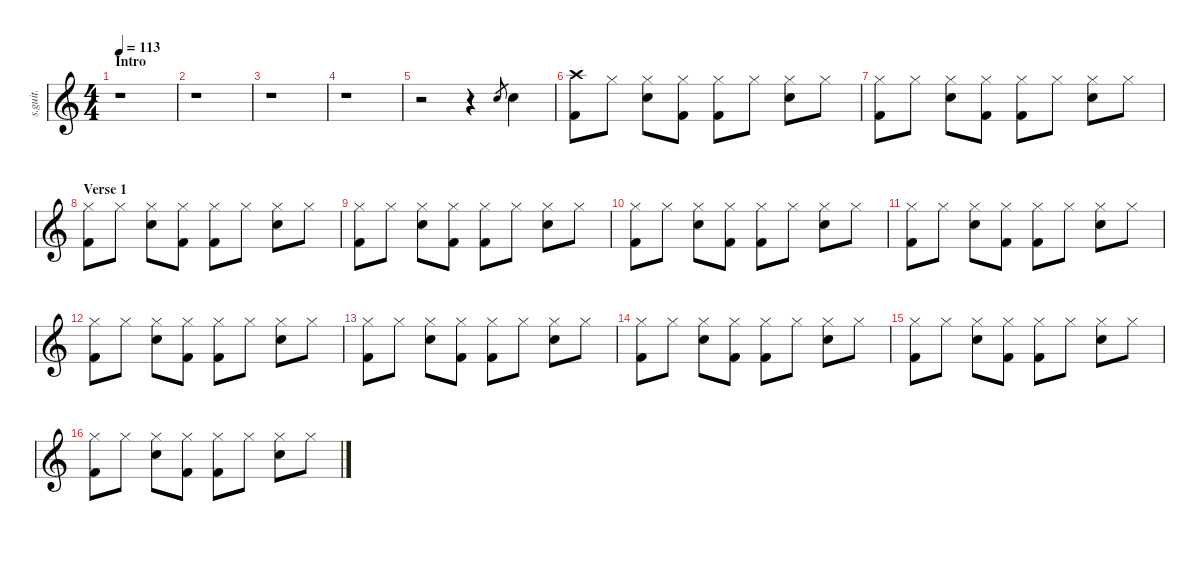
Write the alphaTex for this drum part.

\defaultSystemsLayout 4
\hideDynamics
\bracketExtendMode nobrackets
\track ("" "s.guit.") {instrument percussion}
\staff {score}
\articulation defaults
\ts (4 4)
\beaming (8 2 2 2 2)
\section ("" "Intro")
\tempo 113
\clef g2
\ks c
r.1{dy f} |
r.1 |
r.1 |
r.1 |
r.2 r.4 "Snare (hit) 2".8{lyrics (0 "") lyrics (1 "") lyrics (2 "") lyrics (3 "") lyrics (4 "") gr} "Snare (hit) 2".4{lyrics (0 "") lyrics (1 "") lyrics (2 "") lyrics (3 "") lyrics (4 "")} |
("Crash high (hit)" "Kick (hit) 2").8{lyrics (0 "") lyrics (1 "") lyrics (2 "") lyrics (3 "") lyrics (4 "")} "Hi-Hat (closed)".8{lyrics (0 "") lyrics (1 "") lyrics (2 "") lyrics (3 "") lyrics (4 "")} ("Hi-Hat (closed)" "Snare (hit) 2").8{lyrics (0 "") lyrics (1 "") lyrics (2 "") lyrics (3 "") lyrics (4 "")} ("Hi-Hat (closed)" "Kick (hit) 2").8{lyrics (0 "") lyrics (1 "") lyrics (2 "") lyrics (3 "") lyrics (4 "")} ("Hi-Hat (closed)" "Kick (hit) 2").8{lyrics (0 "") lyrics (1 "") lyrics (2 "") lyrics (3 "") lyrics (4 "")} "Hi-Hat (closed)".8{lyrics (0 "") lyrics (1 "") lyrics (2 "") lyrics (3 "") lyrics (4 "")} ("Hi-Hat (closed)" "Snare (hit) 2").8{lyrics (0 "") lyrics (1 "") lyrics (2 "") lyrics (3 "") lyrics (4 "")} "Hi-Hat (closed)".8{lyrics (0 "") lyrics (1 "") lyrics (2 "") lyrics (3 "") lyrics (4 "")} |
("Hi-Hat (closed)" "Kick (hit) 2").8{lyrics (0 "") lyrics (1 "") lyrics (2 "") lyrics (3 "") lyrics (4 "")} "Hi-Hat (closed)".8{lyrics (0 "") lyrics (1 "") lyrics (2 "") lyrics (3 "") lyrics (4 "")} ("Hi-Hat (closed)" "Snare (hit) 2").8{lyrics (0 "") lyrics (1 "") lyrics (2 "") lyrics (3 "") lyrics (4 "")} ("Hi-Hat (closed)" "Kick (hit) 2").8{lyrics (0 "") lyrics (1 "") lyrics (2 "") lyrics (3 "") lyrics (4 "")} ("Hi-Hat (closed)" "Kick (hit) 2").8{lyrics (0 "") lyrics (1 "") lyrics (2 "") lyrics (3 "") lyrics (4 "")} "Hi-Hat (closed)".8{lyrics (0 "") lyrics (1 "") lyrics (2 "") lyrics (3 "") lyrics (4 "")} ("Hi-Hat (closed)" "Snare (hit) 2").8{lyrics (0 "") lyrics (1 "") lyrics (2 "") lyrics (3 "") lyrics (4 "")} "Hi-Hat (closed)".8{lyrics (0 "") lyrics (1 "") lyrics (2 "") lyrics (3 "") lyrics (4 "")} |
\section ("" "Verse 1")
("Hi-Hat (closed)" "Kick (hit) 2").8{lyrics (0 "") lyrics (1 "") lyrics (2 "") lyrics (3 "") lyrics (4 "")} "Hi-Hat (closed)".8{lyrics (0 "") lyrics (1 "") lyrics (2 "") lyrics (3 "") lyrics (4 "")} ("Hi-Hat (closed)" "Snare (hit) 2").8{lyrics (0 "") lyrics (1 "") lyrics (2 "") lyrics (3 "") lyrics (4 "")} ("Hi-Hat (closed)" "Kick (hit) 2").8{lyrics (0 "") lyrics (1 "") lyrics (2 "") lyrics (3 "") lyrics (4 "")} ("Hi-Hat (closed)" "Kick (hit) 2").8{lyrics (0 "") lyrics (1 "") lyrics (2 "") lyrics (3 "") lyrics (4 "")} "Hi-Hat (closed)".8{lyrics (0 "") lyrics (1 "") lyrics (2 "") lyrics (3 "") lyrics (4 "")} ("Hi-Hat (closed)" "Snare (hit) 2").8{lyrics (0 "") lyrics (1 "") lyrics (2 "") lyrics (3 "") lyrics (4 "")} "Hi-Hat (closed)".8{lyrics (0 "") lyrics (1 "") lyrics (2 "") lyrics (3 "") lyrics (4 "")} |
("Hi-Hat (closed)" "Kick (hit) 2").8{lyrics (0 "") lyrics (1 "") lyrics (2 "") lyrics (3 "") lyrics (4 "")} "Hi-Hat (closed)".8{lyrics (0 "") lyrics (1 "") lyrics (2 "") lyrics (3 "") lyrics (4 "")} ("Hi-Hat (closed)" "Snare (hit) 2").8{lyrics (0 "") lyrics (1 "") lyrics (2 "") lyrics (3 "") lyrics (4 "")} ("Hi-Hat (closed)" "Kick (hit) 2").8{lyrics (0 "") lyrics (1 "") lyrics (2 "") lyrics (3 "") lyrics (4 "")} ("Hi-Hat (closed)" "Kick (hit) 2").8{lyrics (0 "") lyrics (1 "") lyrics (2 "") lyrics (3 "") lyrics (4 "")} "Hi-Hat (closed)".8{lyrics (0 "") lyrics (1 "") lyrics (2 "") lyrics (3 "") lyrics (4 "")} ("Hi-Hat (closed)" "Snare (hit) 2").8{lyrics (0 "") lyrics (1 "") lyrics (2 "") lyrics (3 "") lyrics (4 "")} "Hi-Hat (closed)".8{lyrics (0 "") lyrics (1 "") lyrics (2 "") lyrics (3 "") lyrics (4 "")} |
("Hi-Hat (closed)" "Kick (hit) 2").8{lyrics (0 "") lyrics (1 "") lyrics (2 "") lyrics (3 "") lyrics (4 "")} "Hi-Hat (closed)".8{lyrics (0 "") lyrics (1 "") lyrics (2 "") lyrics (3 "") lyrics (4 "")} ("Hi-Hat (closed)" "Snare (hit) 2").8{lyrics (0 "") lyrics (1 "") lyrics (2 "") lyrics (3 "") lyrics (4 "")} ("Hi-Hat (closed)" "Kick (hit) 2").8{lyrics (0 "") lyrics (1 "") lyrics (2 "") lyrics (3 "") lyrics (4 "")} ("Hi-Hat (closed)" "Kick (hit) 2").8{lyrics (0 "") lyrics (1 "") lyrics (2 "") lyrics (3 "") lyrics (4 "")} "Hi-Hat (closed)".8{lyrics (0 "") lyrics (1 "") lyrics (2 "") lyrics (3 "") lyrics (4 "")} ("Hi-Hat (closed)" "Snare (hit) 2").8{lyrics (0 "") lyrics (1 "") lyrics (2 "") lyrics (3 "") lyrics (4 "")} "Hi-Hat (closed)".8{lyrics (0 "") lyrics (1 "") lyrics (2 "") lyrics (3 "") lyrics (4 "")} |
("Hi-Hat (closed)" "Kick (hit) 2").8{lyrics (0 "") lyrics (1 "") lyrics (2 "") lyrics (3 "") lyrics (4 "")} "Hi-Hat (closed)".8{lyrics (0 "") lyrics (1 "") lyrics (2 "") lyrics (3 "") lyrics (4 "")} ("Hi-Hat (closed)" "Snare (hit) 2").8{lyrics (0 "") lyrics (1 "") lyrics (2 "") lyrics (3 "") lyrics (4 "")} ("Hi-Hat (closed)" "Kick (hit) 2").8{lyrics (0 "") lyrics (1 "") lyrics (2 "") lyrics (3 "") lyrics (4 "")} ("Hi-Hat (closed)" "Kick (hit) 2").8{lyrics (0 "") lyrics (1 "") lyrics (2 "") lyrics (3 "") lyrics (4 "")} "Hi-Hat (closed)".8{lyrics (0 "") lyrics (1 "") lyrics (2 "") lyrics (3 "") lyrics (4 "")} ("Hi-Hat (closed)" "Snare (hit) 2").8{lyrics (0 "") lyrics (1 "") lyrics (2 "") lyrics (3 "") lyrics (4 "")} "Hi-Hat (closed)".8{lyrics (0 "") lyrics (1 "") lyrics (2 "") lyrics (3 "") lyrics (4 "")} |
("Hi-Hat (closed)" "Kick (hit) 2").8{lyrics (0 "") lyrics (1 "") lyrics (2 "") lyrics (3 "") lyrics (4 "")} "Hi-Hat (closed)".8{lyrics (0 "") lyrics (1 "") lyrics (2 "") lyrics (3 "") lyrics (4 "")} ("Hi-Hat (closed)" "Snare (hit) 2").8{lyrics (0 "") lyrics (1 "") lyrics (2 "") lyrics (3 "") lyrics (4 "")} ("Hi-Hat (closed)" "Kick (hit) 2").8{lyrics (0 "") lyrics (1 "") lyrics (2 "") lyrics (3 "") lyrics (4 "")} ("Hi-Hat (closed)" "Kick (hit) 2").8{lyrics (0 "") lyrics (1 "") lyrics (2 "") lyrics (3 "") lyrics (4 "")} "Hi-Hat (closed)".8{lyrics (0 "") lyrics (1 "") lyrics (2 "") lyrics (3 "") lyrics (4 "")} ("Hi-Hat (closed)" "Snare (hit) 2").8{lyrics (0 "") lyrics (1 "") lyrics (2 "") lyrics (3 "") lyrics (4 "")} "Hi-Hat (closed)".8{lyrics (0 "") lyrics (1 "") lyrics (2 "") lyrics (3 "") lyrics (4 "")} |
("Hi-Hat (closed)" "Kick (hit) 2").8{lyrics (0 "") lyrics (1 "") lyrics (2 "") lyrics (3 "") lyrics (4 "")} "Hi-Hat (closed)".8{lyrics (0 "") lyrics (1 "") lyrics (2 "") lyrics (3 "") lyrics (4 "")} ("Hi-Hat (closed)" "Snare (hit) 2").8{lyrics (0 "") lyrics (1 "") lyrics (2 "") lyrics (3 "") lyrics (4 "")} ("Hi-Hat (closed)" "Kick (hit) 2").8{lyrics (0 "") lyrics (1 "") lyrics (2 "") lyrics (3 "") lyrics (4 "")} ("Hi-Hat (closed)" "Kick (hit) 2").8{lyrics (0 "") lyrics (1 "") lyrics (2 "") lyrics (3 "") lyrics (4 "")} "Hi-Hat (closed)".8{lyrics (0 "") lyrics (1 "") lyrics (2 "") lyrics (3 "") lyrics (4 "")} ("Hi-Hat (closed)" "Snare (hit) 2").8{lyrics (0 "") lyrics (1 "") lyrics (2 "") lyrics (3 "") lyrics (4 "")} "Hi-Hat (closed)".8{lyrics (0 "") lyrics (1 "") lyrics (2 "") lyrics (3 "") lyrics (4 "")} |
("Hi-Hat (closed)" "Kick (hit) 2").8{lyrics (0 "") lyrics (1 "") lyrics (2 "") lyrics (3 "") lyrics (4 "")} "Hi-Hat (closed)".8{lyrics (0 "") lyrics (1 "") lyrics (2 "") lyrics (3 "") lyrics (4 "")} ("Hi-Hat (closed)" "Snare (hit) 2").8{lyrics (0 "") lyrics (1 "") lyrics (2 "") lyrics (3 "") lyrics (4 "")} ("Hi-Hat (closed)" "Kick (hit) 2").8{lyrics (0 "") lyrics (1 "") lyrics (2 "") lyrics (3 "") lyrics (4 "")} ("Hi-Hat (closed)" "Kick (hit) 2").8{lyrics (0 "") lyrics (1 "") lyrics (2 "") lyrics (3 "") lyrics (4 "")} "Hi-Hat (closed)".8{lyrics (0 "") lyrics (1 "") lyrics (2 "") lyrics (3 "") lyrics (4 "")} ("Hi-Hat (closed)" "Snare (hit) 2").8{lyrics (0 "") lyrics (1 "") lyrics (2 "") lyrics (3 "") lyrics (4 "")} "Hi-Hat (closed)".8{lyrics (0 "") lyrics (1 "") lyrics (2 "") lyrics (3 "") lyrics (4 "")} |
("Hi-Hat (closed)" "Kick (hit) 2").8{lyrics (0 "") lyrics (1 "") lyrics (2 "") lyrics (3 "") lyrics (4 "")} "Hi-Hat (closed)".8{lyrics (0 "") lyrics (1 "") lyrics (2 "") lyrics (3 "") lyrics (4 "")} ("Hi-Hat (closed)" "Snare (hit) 2").8{lyrics (0 "") lyrics (1 "") lyrics (2 "") lyrics (3 "") lyrics (4 "")} ("Hi-Hat (closed)" "Kick (hit) 2").8{lyrics (0 "") lyrics (1 "") lyrics (2 "") lyrics (3 "") lyrics (4 "")} ("Hi-Hat (closed)" "Kick (hit) 2").8{lyrics (0 "") lyrics (1 "") lyrics (2 "") lyrics (3 "") lyrics (4 "")} "Hi-Hat (closed)".8{lyrics (0 "") lyrics (1 "") lyrics (2 "") lyrics (3 "") lyrics (4 "")} ("Hi-Hat (closed)" "Snare (hit) 2").8{lyrics (0 "") lyrics (1 "") lyrics (2 "") lyrics (3 "") lyrics (4 "")} "Hi-Hat (closed)".8{lyrics (0 "") lyrics (1 "") lyrics (2 "") lyrics (3 "") lyrics (4 "")} |
("Hi-Hat (closed)" "Kick (hit) 2").8{lyrics (0 "") lyrics (1 "") lyrics (2 "") lyrics (3 "") lyrics (4 "")} "Hi-Hat (closed)".8{lyrics (0 "") lyrics (1 "") lyrics (2 "") lyrics (3 "") lyrics (4 "")} ("Hi-Hat (closed)" "Snare (hit) 2").8{lyrics (0 "") lyrics (1 "") lyrics (2 "") lyrics (3 "") lyrics (4 "")} ("Hi-Hat (closed)" "Kick (hit) 2").8{lyrics (0 "") lyrics (1 "") lyrics (2 "") lyrics (3 "") lyrics (4 "")} ("Hi-Hat (closed)" "Kick (hit) 2").8{lyrics (0 "") lyrics (1 "") lyrics (2 "") lyrics (3 "") lyrics (4 "")} "Hi-Hat (closed)".8{lyrics (0 "") lyrics (1 "") lyrics (2 "") lyrics (3 "") lyrics (4 "")} ("Hi-Hat (closed)" "Snare (hit) 2").8{lyrics (0 "") lyrics (1 "") lyrics (2 "") lyrics (3 "") lyrics (4 "")} "Hi-Hat (closed)".8{lyrics (0 "") lyrics (1 "") lyrics (2 "") lyrics (3 "") lyrics (4 "")}
